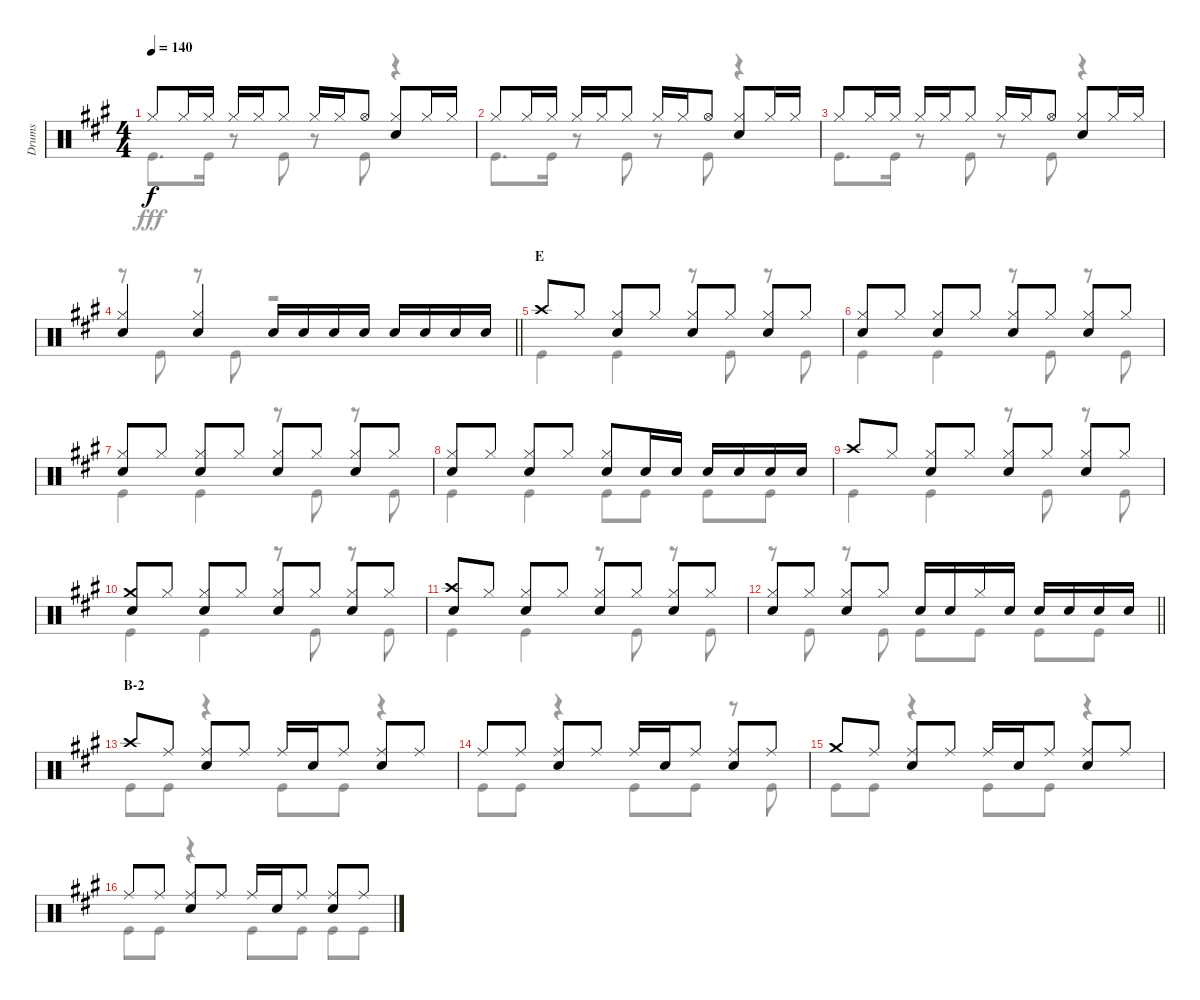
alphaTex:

\track ("Drums" "Drums") {instrument percussion}
\staff {score}
\articulation defaults
\voice
\ts (4 4)
\tempo 140
\clef neutral
\ks a "Hi-Hat (closed)".8{dy f} "Hi-Hat (closed)".16 "Hi-Hat (closed)".16 "Hi-Hat (closed)".16 "Hi-Hat (closed)".16 "Hi-Hat (closed)".8 "Hi-Hat (closed)".16 "Hi-Hat (closed)".16 "Hi-Hat (open)".8
("Hi-Hat (closed)" "Snare (hit) 2").8 "Hi-Hat (closed)".16 "Hi-Hat (closed)".16 |
"Hi-Hat (closed)".8 "Hi-Hat (closed)".16 "Hi-Hat (closed)".16 "Hi-Hat (closed)".16 "Hi-Hat (closed)".16 "Hi-Hat (closed)".8 "Hi-Hat (closed)".16 "Hi-Hat (closed)".16 "Hi-Hat (open)".8 ("Hi-Hat (closed)" "Snare (hit) 2").8 "Hi-Hat (closed)".16 "Hi-Hat (closed)".16 |
"Hi-Hat (closed)".8 "Hi-Hat (closed)".16 "Hi-Hat (closed)".16 "Hi-Hat (closed)".16 "Hi-Hat (closed)".16 "Hi-Hat (closed)".8 "Hi-Hat (closed)".16 "Hi-Hat (closed)".16 "Hi-Hat (open)".8 ("Hi-Hat (closed)" "Snare (hit) 2").8 "Hi-Hat (closed)".16 "Hi-Hat (closed)".16 |
\barLineRight lightlight
("Hi-Hat (closed)" "Snare (hit) 2").4 ("Hi-Hat (closed)" "Snare (hit) 2").4 "Snare (hit) 2".16 "Snare (hit) 2".16 "Snare (hit) 2".16 "Snare (hit) 2".16 "Snare (hit) 2".16 "Snare (hit) 2".16 "Snare (hit) 2".16 "Snare (hit) 2".16 |
\section ("" "E")
"Crash high (hit)".8 "Hi-Hat (closed)".8 ("Hi-Hat (closed)" "Snare (hit) 2").8 "Hi-Hat (closed)".8 ("Hi-Hat (closed)" "Snare (hit) 2").8 "Hi-Hat (closed)".8 ("Hi-Hat (closed)" "Snare (hit) 2").8 "Hi-Hat (closed)".8 |
("Hi-Hat (closed)" "Snare (hit) 2").8 "Hi-Hat (closed)".8 ("Hi-Hat (closed)" "Snare (hit) 2").8 "Hi-Hat (closed)".8 ("Hi-Hat (closed)" "Snare (hit) 2").8 "Hi-Hat (closed)".8 ("Hi-Hat (closed)" "Snare (hit) 2").8 "Hi-Hat (closed)".8 |
("Hi-Hat (closed)" "Snare (hit) 2").8 "Hi-Hat (closed)".8 ("Hi-Hat (closed)" "Snare (hit) 2").8 "Hi-Hat (closed)".8 ("Hi-Hat (closed)" "Snare (hit) 2").8 "Hi-Hat (closed)".8 ("Hi-Hat (closed)" "Snare (hit) 2").8 "Hi-Hat (closed)".8 |
("Hi-Hat (closed)" "Snare (hit) 2").8 "Hi-Hat (closed)".8 ("Hi-Hat (closed)" "Snare (hit) 2").8 "Hi-Hat (closed)".8 ("Hi-Hat (closed)" "Snare (hit) 2").8 "Snare (hit) 2".16 "Snare (hit) 2".16 "Snare (hit) 2".16 "Snare (hit) 2".16 "Snare (hit) 2".16 "Snare (hit) 2".16 |
"Crash high (hit)".8 "Hi-Hat (closed)".8 ("Hi-Hat (closed)" "Snare (hit) 2").8 "Hi-Hat (closed)".8 ("Hi-Hat (closed)" "Snare (hit) 2").8 "Hi-Hat (closed)".8 ("Hi-Hat (closed)" "Snare (hit) 2").8 "Hi-Hat (closed)".8 |
("Crash medium (hit)" "Snare (hit) 2").8 "Hi-Hat (closed)".8 ("Hi-Hat (closed)" "Snare (hit) 2").8 "Hi-Hat (closed)".8 ("Hi-Hat (closed)" "Snare (hit) 2").8 "Hi-Hat (closed)".8 ("Hi-Hat (closed)" "Snare (hit) 2").8 "Hi-Hat (closed)".8 |
("Crash high (hit)" "Snare (hit) 2").8 "Hi-Hat (closed)".8 ("Hi-Hat (closed)" "Snare (hit) 2").8 "Hi-Hat (closed)".8 ("Hi-Hat (closed)" "Snare (hit) 2").8 "Hi-Hat (closed)".8 ("Hi-Hat (closed)" "Snare (hit) 2").8 "Hi-Hat (closed)".8 |
\barLineRight lightlight
("Hi-Hat (closed)" "Snare (hit) 2").8 "Hi-Hat (closed)".8 ("Hi-Hat (closed)" "Snare (hit) 2").8 "Hi-Hat (closed)".8 "Snare (hit) 2".16 "Snare (hit) 2".16 "Hi-Hat (closed)".16 "Snare (hit) 2".16 "Snare (hit) 2".16 "Snare (hit) 2".16 "Snare (hit) 2".16 "Snare (hit) 2".16 |
\section ("" "B-2")
"Crash high (hit)".8 "Ride (middle)".8 ("Ride (middle)" "Snare (hit) 2").8 "Ride (middle)".8 "Ride (middle)".16 "Snare (hit) 2".16 "Ride (middle)".8 ("Ride (middle)" "Snare (hit) 2").8 "Ride (middle)".8 |
"Ride (middle)".8 "Ride (middle)".8 ("Ride (middle)" "Snare (hit) 2").8 "Ride (middle)".8 "Ride (middle)".16 "Snare (hit) 2".16 "Ride (middle)".8 ("Ride (middle)" "Snare (hit) 2").8 "Ride (middle)".8 |
"Crash medium (hit)".8 "Ride (middle)".8 ("Ride (middle)" "Snare (hit) 2").8 "Ride (middle)".8 "Ride (middle)".16 "Snare (hit) 2".16 "Ride (middle)".8 ("Ride (middle)" "Snare (hit) 2").8 "Ride (middle)".8 |
"Ride (middle)".8 "Ride (middle)".8 ("Ride (middle)" "Snare (hit) 2").8 "Ride (middle)".8 "Ride (middle)".16 "Snare (hit) 2".16 "Ride (middle)".8 ("Ride (middle)" "Snare (hit) 2").8 "Ride (middle)".8
\voice
\clef neutral
\ottava regular
\simile none
\ks a "Kick (hit)".8{d dy fff} "Kick (hit)".16
r.8 "Kick (hit)".8 r.8 "Kick (hit)".8 r.4 |
"Kick (hit)".8{d} "Kick (hit)".16 r.8 "Kick (hit)".8 r.8 "Kick (hit)".8 r.4 |
"Kick (hit)".8{d} "Kick (hit)".16 r.8 "Kick (hit)".8 r.8 "Kick (hit)".8 r.4 |
\barLineRight lightlight
r.8 "Kick (hit)".8 r.8 "Kick (hit)".8 r.2 |
"Kick (hit)".4 "Kick (hit)".4 r.8 "Kick (hit)".8 r.8 "Kick (hit)".8 |
"Kick (hit)".4 "Kick (hit)".4 r.8 "Kick (hit)".8 r.8 "Kick (hit)".8 |
"Kick (hit)".4 "Kick (hit)".4 r.8 "Kick (hit)".8 r.8 "Kick (hit)".8 |
"Kick (hit)".4 "Kick (hit)".4 "Kick (hit)".8 "Kick (hit)".8 "Kick (hit)".8 "Kick (hit)".8 |
"Kick (hit)".4 "Kick (hit)".4 r.8 "Kick (hit)".8 r.8 "Kick (hit)".8 |
"Kick (hit)".4 "Kick (hit)".4 r.8 "Kick (hit)".8 r.8 "Kick (hit)".8 |
"Kick (hit)".4 "Kick (hit)".4 r.8 "Kick (hit)".8 r.8 "Kick (hit)".8 |
\barLineRight lightlight
r.8 "Kick (hit)".8 r.8 "Kick (hit)".8 "Kick (hit)".8 "Kick (hit)".8 "Kick (hit)".8 "Kick (hit)".8 |
"Kick (hit)".8 "Kick (hit)".8 r.4 "Kick (hit)".8 "Kick (hit)".8 r.4 |
"Kick (hit)".8 "Kick (hit)".8 r.4 "Kick (hit)".8 "Kick (hit)".8 r.8 "Kick (hit)".8 |
"Kick (hit)".8 "Kick (hit)".8 r.4 "Kick (hit)".8 "Kick (hit)".8 r.4 |
"Kick (hit)".8 "Kick (hit)".8 r.4 "Kick (hit)".8 "Kick (hit)".8 "Kick (hit)".8 "Kick (hit)".8
